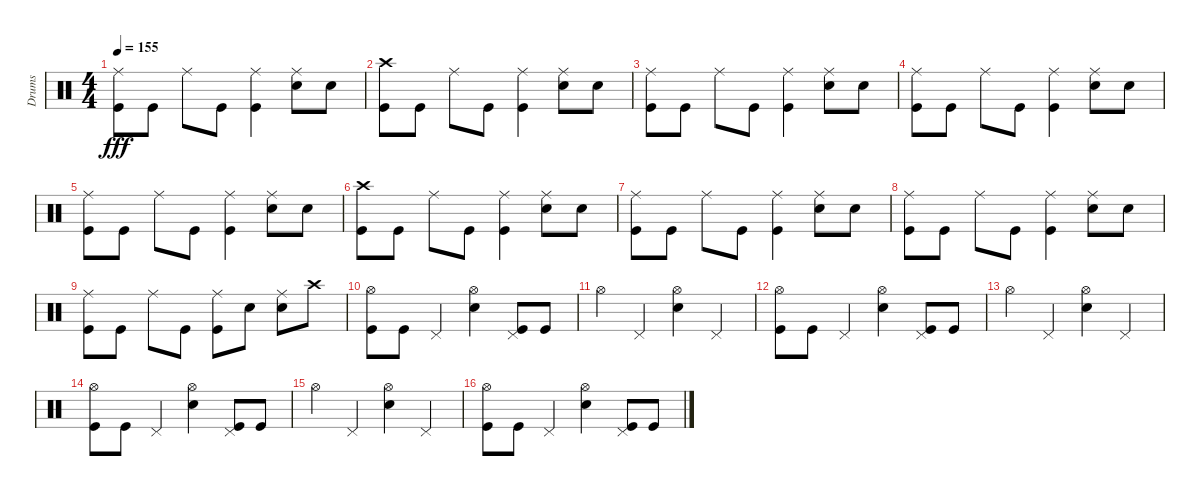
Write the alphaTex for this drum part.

\track ("Drums               " "Drums     ") {instrument percussion}
\staff {score}
\articulation defaults
\ts (4 4)
\tempo 155
\clef neutral
\ks c
("Kick (hit)" "Ride (middle)").8{dy fff} "Kick (hit)".8 "Ride (middle)".8 "Kick (hit)".8 ("Kick (hit)" "Ride (middle)").4 ("Snare (hit) 2" "Ride (middle)").8 "Snare (hit) 2".8 |
("Kick (hit)" "Crash high (hit)").8 "Kick (hit)".8 "Ride (middle)".8 "Kick (hit)".8 ("Kick (hit)" "Ride (middle)").4 ("Snare (hit) 2" "Ride (middle)").8 "Snare (hit) 2".8 |
("Kick (hit)" "Ride (middle)").8 "Kick (hit)".8 "Ride (middle)".8 "Kick (hit)".8 ("Kick (hit)" "Ride (middle)").4 ("Snare (hit) 2" "Ride (middle)").8 "Snare (hit) 2".8 |
("Kick (hit)" "Ride (middle)").8 "Kick (hit)".8 "Ride (middle)".8 "Kick (hit)".8 ("Kick (hit)" "Ride (middle)").4 ("Snare (hit) 2" "Ride (middle)").8 "Snare (hit) 2".8 |
("Kick (hit)" "Ride (middle)").8 "Kick (hit)".8 "Ride (middle)".8 "Kick (hit)".8 ("Kick (hit)" "Ride (middle)").4 ("Snare (hit) 2" "Ride (middle)").8 "Snare (hit) 2".8 |
("Kick (hit)" "Crash high (hit)").8 "Kick (hit)".8 "Ride (middle)".8 "Kick (hit)".8 ("Kick (hit)" "Ride (middle)").4 ("Snare (hit) 2" "Ride (middle)").8 "Snare (hit) 2".8 |
("Kick (hit)" "Ride (middle)").8 "Kick (hit)".8 "Ride (middle)".8 "Kick (hit)".8 ("Kick (hit)" "Ride (middle)").4 ("Snare (hit) 2" "Ride (middle)").8 "Snare (hit) 2".8 |
("Kick (hit)" "Ride (middle)").8 "Kick (hit)".8 "Ride (middle)".8 "Kick (hit)".8 ("Kick (hit)" "Ride (middle)").4 ("Snare (hit) 2" "Ride (middle)").8 "Snare (hit) 2".8 |
("Ride (middle)" "Kick (hit)").8 "Kick (hit)".8 "Ride (middle)".8 "Kick (hit)".8 ("Ride (middle)" "Kick (hit)").8 "Snare (hit) 2".8 ("Ride (middle)" "Snare (hit) 2").8 "Crash high (hit)".8 |
("Kick (hit)" "Hi-Hat (open)").8 "Kick (hit)".8 "Pedal Hi-Hat (hit)".4 ("Snare (hit) 2" "Hi-Hat (open)").4 ("Kick (hit)" "Pedal Hi-Hat (hit)").8 "Kick (hit)".8 |
"Hi-Hat (open)".4 "Pedal Hi-Hat (hit)".4 ("Hi-Hat (open)" "Snare (hit) 2").4 "Pedal Hi-Hat (hit)".4 |
("Kick (hit)" "Hi-Hat (open)").8 "Kick (hit)".8 "Pedal Hi-Hat (hit)".4 ("Snare (hit) 2" "Hi-Hat (open)").4 ("Kick (hit)" "Pedal Hi-Hat (hit)").8 "Kick (hit)".8 |
"Hi-Hat (open)".4 "Pedal Hi-Hat (hit)".4 ("Hi-Hat (open)" "Snare (hit) 2").4 "Pedal Hi-Hat (hit)".4 |
("Kick (hit)" "Hi-Hat (open)").8 "Kick (hit)".8 "Pedal Hi-Hat (hit)".4 ("Snare (hit) 2" "Hi-Hat (open)").4 ("Kick (hit)" "Pedal Hi-Hat (hit)").8 "Kick (hit)".8 |
"Hi-Hat (open)".4 "Pedal Hi-Hat (hit)".4 ("Hi-Hat (open)" "Snare (hit) 2").4 "Pedal Hi-Hat (hit)".4 |
("Kick (hit)" "Hi-Hat (open)").8 "Kick (hit)".8 "Pedal Hi-Hat (hit)".4 ("Snare (hit) 2" "Hi-Hat (open)").4 ("Kick (hit)" "Pedal Hi-Hat (hit)").8 "Kick (hit)".8
